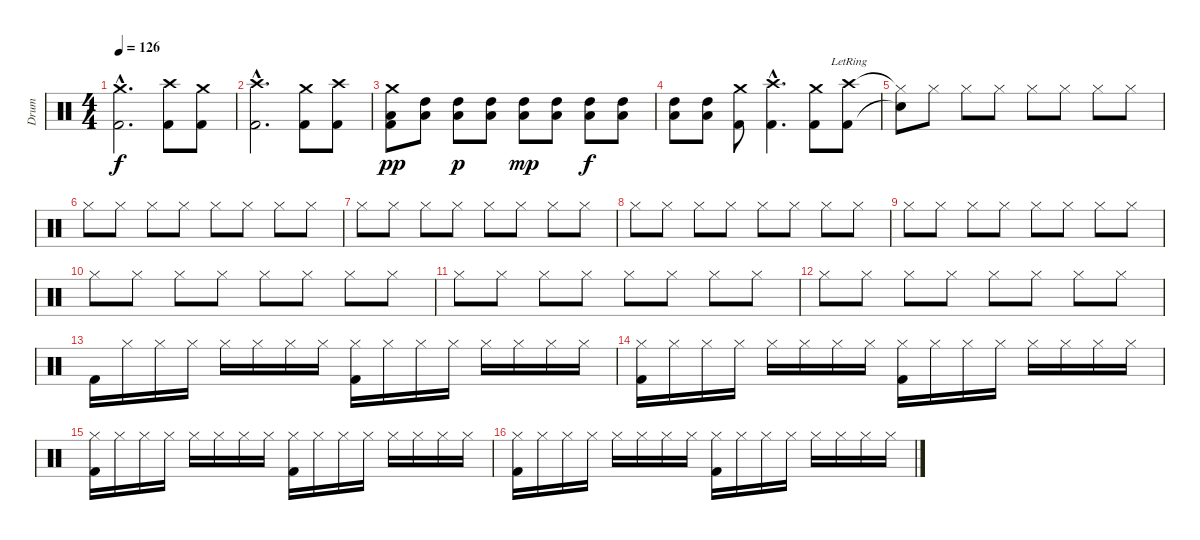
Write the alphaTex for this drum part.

\track ("Drum" "Drum") {instrument percussion}
\staff {score}
\articulation defaults
\ts (4 4)
\tempo 126
\clef neutral
\ks c
("Crash medium (hit)"{hac} "Kick (hit) 2"{hac}).2{d dy f} ("Crash high (hit)" "Kick (hit) 2").8 ("Crash medium (hit)" "Kick (hit) 2").8 |
("Crash high (hit)"{hac} "Kick (hit) 2"{hac}).2{d} ("Crash medium (hit)" "Kick (hit) 2").8 ("Crash high (hit)" "Kick (hit) 2").8 |
("Crash medium (hit)" "Low Tom (hit)" "Kick (hit) 2").8{dy pp} ("High Tom (hit)" "Low Tom (hit)").8 ("High Tom (hit)" "Low Tom (hit)").8{dy p} ("High Tom (hit)" "Low Tom (hit)").8 ("High Tom (hit)" "Low Tom (hit)").8{dy mp} ("High Tom (hit)" "Low Tom (hit)").8 ("High Tom (hit)" "Low Tom (hit)").8{dy f} ("High Tom (hit)" "Low Tom (hit)").8 |
("High Tom (hit)" "Low Tom (hit)").8 ("High Tom (hit)" "Low Tom (hit)").8 ("Crash medium (hit)" "Kick (hit) 2").8 ("Crash high (hit)"{hac} "Kick (hit) 2"{hac}).4{d} ("Crash medium (hit)" "Kick (hit) 2").8 ("Crash high (hit)"{lr} "Kick (hit) 2").8 |
("Hi-Hat (closed)"{t} "Snare (hit)"{t}).8 "Hi-Hat (closed)".8 "Hi-Hat (closed)".8 "Hi-Hat (closed)".8 "Hi-Hat (closed)".8 "Hi-Hat (closed)".8 "Hi-Hat (closed)".8 "Hi-Hat (closed)".8 |
"Hi-Hat (closed)".8 "Hi-Hat (closed)".8 "Hi-Hat (closed)".8 "Hi-Hat (closed)".8 "Hi-Hat (closed)".8 "Hi-Hat (closed)".8 "Hi-Hat (closed)".8 "Hi-Hat (closed)".8 |
"Hi-Hat (closed)".8 "Hi-Hat (closed)".8 "Hi-Hat (closed)".8 "Hi-Hat (closed)".8 "Hi-Hat (closed)".8 "Hi-Hat (closed)".8 "Hi-Hat (closed)".8 "Hi-Hat (closed)".8 |
"Hi-Hat (closed)".8 "Hi-Hat (closed)".8 "Hi-Hat (closed)".8 "Hi-Hat (closed)".8 "Hi-Hat (closed)".8 "Hi-Hat (closed)".8 "Hi-Hat (closed)".8 "Hi-Hat (closed)".8 |
"Hi-Hat (closed)".8 "Hi-Hat (closed)".8 "Hi-Hat (closed)".8 "Hi-Hat (closed)".8 "Hi-Hat (closed)".8 "Hi-Hat (closed)".8 "Hi-Hat (closed)".8 "Hi-Hat (closed)".8 |
"Hi-Hat (closed)".8 "Hi-Hat (closed)".8 "Hi-Hat (closed)".8 "Hi-Hat (closed)".8 "Hi-Hat (closed)".8 "Hi-Hat (closed)".8 "Hi-Hat (closed)".8 "Hi-Hat (closed)".8 |
"Hi-Hat (closed)".8 "Hi-Hat (closed)".8 "Hi-Hat (closed)".8 "Hi-Hat (closed)".8 "Hi-Hat (closed)".8 "Hi-Hat (closed)".8 "Hi-Hat (closed)".8 "Hi-Hat (closed)".8 |
"Hi-Hat (closed)".8 "Hi-Hat (closed)".8 "Hi-Hat (closed)".8 "Hi-Hat (closed)".8 "Hi-Hat (closed)".8 "Hi-Hat (closed)".8 "Hi-Hat (closed)".8 "Hi-Hat (closed)".8 |
"Kick (hit) 2".16 "Hi-Hat (closed)".16 "Hi-Hat (closed)".16 "Hi-Hat (closed)".16 "Hi-Hat (closed)".16 "Hi-Hat (closed)".16 "Hi-Hat (closed)".16 "Hi-Hat (closed)".16 ("Hi-Hat (closed)" "Kick (hit) 2").16 "Hi-Hat (closed)".16 "Hi-Hat (closed)".16 "Hi-Hat (closed)".16 "Hi-Hat (closed)".16 "Hi-Hat (closed)".16 "Hi-Hat (closed)".16 "Hi-Hat (closed)".16 |
("Hi-Hat (closed)" "Kick (hit) 2").16 "Hi-Hat (closed)".16 "Hi-Hat (closed)".16 "Hi-Hat (closed)".16 "Hi-Hat (closed)".16 "Hi-Hat (closed)".16 "Hi-Hat (closed)".16 "Hi-Hat (closed)".16 ("Hi-Hat (closed)" "Kick (hit) 2").16 "Hi-Hat (closed)".16 "Hi-Hat (closed)".16 "Hi-Hat (closed)".16 "Hi-Hat (closed)".16 "Hi-Hat (closed)".16 "Hi-Hat (closed)".16 "Hi-Hat (closed)".16 |
("Hi-Hat (closed)" "Kick (hit) 2").16 "Hi-Hat (closed)".16 "Hi-Hat (closed)".16 "Hi-Hat (closed)".16 "Hi-Hat (closed)".16 "Hi-Hat (closed)".16 "Hi-Hat (closed)".16 "Hi-Hat (closed)".16 ("Hi-Hat (closed)" "Kick (hit) 2").16 "Hi-Hat (closed)".16 "Hi-Hat (closed)".16 "Hi-Hat (closed)".16 "Hi-Hat (closed)".16 "Hi-Hat (closed)".16 "Hi-Hat (closed)".16 "Hi-Hat (closed)".16 |
("Hi-Hat (closed)" "Kick (hit) 2").16 "Hi-Hat (closed)".16 "Hi-Hat (closed)".16 "Hi-Hat (closed)".16 "Hi-Hat (closed)".16 "Hi-Hat (closed)".16 "Hi-Hat (closed)".16 "Hi-Hat (closed)".16 ("Hi-Hat (closed)" "Kick (hit) 2").16 "Hi-Hat (closed)".16 "Hi-Hat (closed)".16 "Hi-Hat (closed)".16 "Hi-Hat (closed)".16 "Hi-Hat (closed)".16 "Hi-Hat (closed)".16 "Hi-Hat (closed)".16
